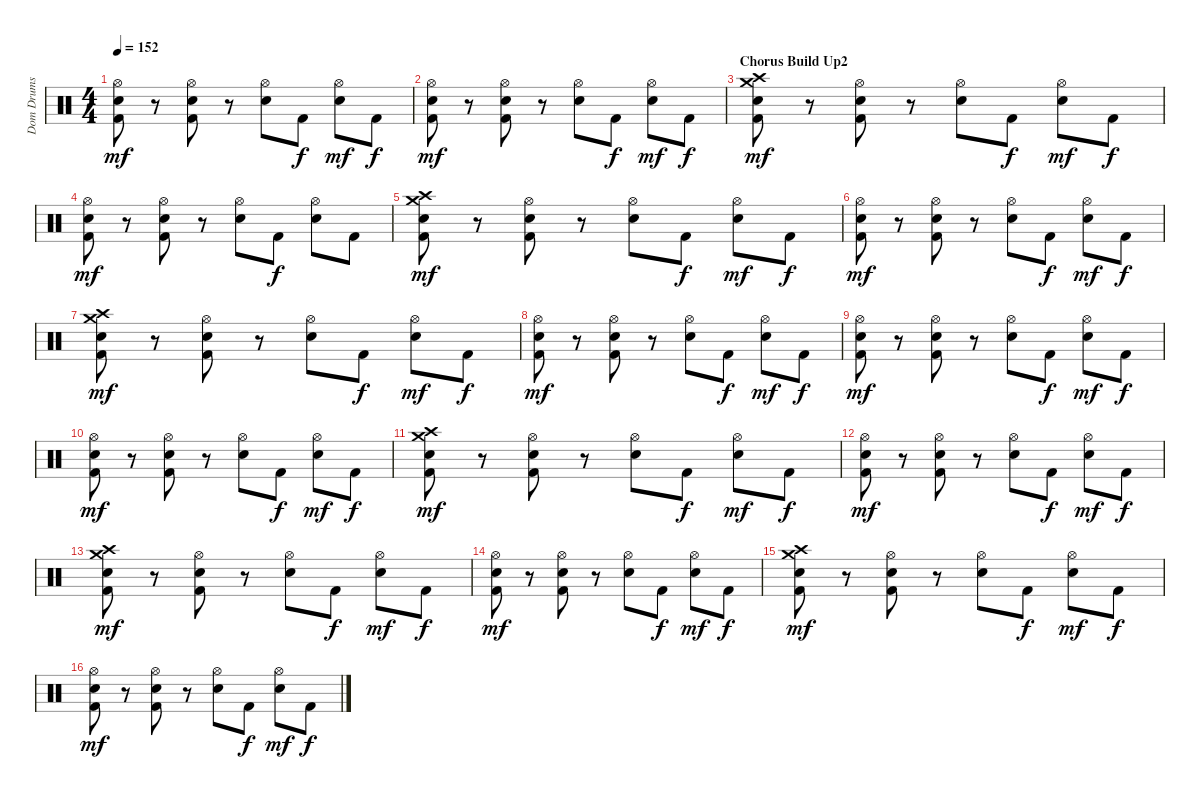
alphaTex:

\track ("Dom Drums" "Dom Drums") {instrument percussion}
\staff {score}
\articulation defaults
\ts (4 4)
\tempo 152
\clef neutral
\ks c
("Hi-Hat (open)" "Kick (hit) 2" "Snare (hit) 2").8{dy mf} r.8 ("Hi-Hat (open)" "Kick (hit) 2" "Snare (hit) 2").8 r.8 ("Hi-Hat (open)" "Snare (hit) 2").8 "Kick (hit) 2".8{dy f} ("Hi-Hat (open)" "Snare (hit) 2").8{dy mf} "Kick (hit) 2".8{dy f} |
("Hi-Hat (open)" "Kick (hit) 2" "Snare (hit) 2").8{dy mf} r.8 ("Hi-Hat (open)" "Kick (hit) 2" "Snare (hit) 2").8 r.8 ("Hi-Hat (open)" "Snare (hit) 2").8 "Kick (hit) 2".8{dy f} ("Hi-Hat (open)" "Snare (hit) 2").8{dy mf} "Kick (hit) 2".8{dy f} |
\section ("" "Chorus Build Up2")
("Crash medium (hit)" "Crash high (hit)" "Kick (hit) 2" "Snare (hit) 2").8{dy mf} r.8 ("Hi-Hat (open)" "Kick (hit) 2" "Snare (hit) 2").8 r.8 ("Hi-Hat (open)" "Snare (hit) 2").8 "Kick (hit) 2".8{dy f} ("Hi-Hat (open)" "Snare (hit) 2").8{dy mf} "Kick (hit) 2".8{dy f} |
("Hi-Hat (open)" "Kick (hit) 2" "Snare (hit) 2").8{dy mf} r.8 ("Hi-Hat (open)" "Kick (hit) 2" "Snare (hit) 2").8 r.8 ("Hi-Hat (open)" "Snare (hit) 2").8 "Kick (hit) 2".8{dy f} ("Hi-Hat (open)" "Snare (hit) 2").8 "Kick (hit) 2".8 |
("Crash medium (hit)" "Crash high (hit)" "Kick (hit) 2" "Snare (hit) 2").8{dy mf} r.8 ("Hi-Hat (open)" "Kick (hit) 2" "Snare (hit) 2").8 r.8 ("Hi-Hat (open)" "Snare (hit) 2").8 "Kick (hit) 2".8{dy f} ("Hi-Hat (open)" "Snare (hit) 2").8{dy mf} "Kick (hit) 2".8{dy f} |
("Hi-Hat (open)" "Kick (hit) 2" "Snare (hit) 2").8{dy mf} r.8 ("Hi-Hat (open)" "Kick (hit) 2" "Snare (hit) 2").8 r.8 ("Hi-Hat (open)" "Snare (hit) 2").8 "Kick (hit) 2".8{dy f} ("Hi-Hat (open)" "Snare (hit) 2").8{dy mf} "Kick (hit) 2".8{dy f} |
("Crash medium (hit)" "Crash high (hit)" "Kick (hit) 2" "Snare (hit) 2").8{dy mf} r.8 ("Hi-Hat (open)" "Kick (hit) 2" "Snare (hit) 2").8 r.8 ("Hi-Hat (open)" "Snare (hit) 2").8 "Kick (hit) 2".8{dy f} ("Hi-Hat (open)" "Snare (hit) 2").8{dy mf} "Kick (hit) 2".8{dy f} |
("Hi-Hat (open)" "Kick (hit) 2" "Snare (hit) 2").8{dy mf} r.8 ("Hi-Hat (open)" "Kick (hit) 2" "Snare (hit) 2").8 r.8 ("Hi-Hat (open)" "Snare (hit) 2").8 "Kick (hit) 2".8{dy f} ("Hi-Hat (open)" "Snare (hit) 2").8{dy mf} "Kick (hit) 2".8{dy f} |
("Hi-Hat (open)" "Kick (hit) 2" "Snare (hit) 2").8{dy mf} r.8 ("Hi-Hat (open)" "Kick (hit) 2" "Snare (hit) 2").8 r.8 ("Hi-Hat (open)" "Snare (hit) 2").8 "Kick (hit) 2".8{dy f} ("Hi-Hat (open)" "Snare (hit) 2").8{dy mf} "Kick (hit) 2".8{dy f} |
("Hi-Hat (open)" "Kick (hit) 2" "Snare (hit) 2").8{dy mf} r.8 ("Hi-Hat (open)" "Kick (hit) 2" "Snare (hit) 2").8 r.8 ("Hi-Hat (open)" "Snare (hit) 2").8 "Kick (hit) 2".8{dy f} ("Hi-Hat (open)" "Snare (hit) 2").8{dy mf} "Kick (hit) 2".8{dy f} |
("Crash medium (hit)" "Crash high (hit)" "Kick (hit) 2" "Snare (hit) 2").8{dy mf} r.8 ("Hi-Hat (open)" "Kick (hit) 2" "Snare (hit) 2").8 r.8 ("Hi-Hat (open)" "Snare (hit) 2").8 "Kick (hit) 2".8{dy f} ("Hi-Hat (open)" "Snare (hit) 2").8{dy mf} "Kick (hit) 2".8{dy f} |
("Hi-Hat (open)" "Kick (hit) 2" "Snare (hit) 2").8{dy mf} r.8 ("Hi-Hat (open)" "Kick (hit) 2" "Snare (hit) 2").8 r.8 ("Hi-Hat (open)" "Snare (hit) 2").8 "Kick (hit) 2".8{dy f} ("Hi-Hat (open)" "Snare (hit) 2").8{dy mf} "Kick (hit) 2".8{dy f} |
("Crash medium (hit)" "Crash high (hit)" "Kick (hit) 2" "Snare (hit) 2").8{dy mf} r.8 ("Hi-Hat (open)" "Kick (hit) 2" "Snare (hit) 2").8 r.8 ("Hi-Hat (open)" "Snare (hit) 2").8 "Kick (hit) 2".8{dy f} ("Hi-Hat (open)" "Snare (hit) 2").8{dy mf} "Kick (hit) 2".8{dy f} |
("Hi-Hat (open)" "Kick (hit) 2" "Snare (hit) 2").8{dy mf} r.8 ("Hi-Hat (open)" "Kick (hit) 2" "Snare (hit) 2").8 r.8 ("Hi-Hat (open)" "Snare (hit) 2").8 "Kick (hit) 2".8{dy f} ("Hi-Hat (open)" "Snare (hit) 2").8{dy mf} "Kick (hit) 2".8{dy f} |
("Crash medium (hit)" "Crash high (hit)" "Kick (hit) 2" "Snare (hit) 2").8{dy mf} r.8 ("Hi-Hat (open)" "Kick (hit) 2" "Snare (hit) 2").8 r.8 ("Hi-Hat (open)" "Snare (hit) 2").8 "Kick (hit) 2".8{dy f} ("Hi-Hat (open)" "Snare (hit) 2").8{dy mf} "Kick (hit) 2".8{dy f} |
("Hi-Hat (open)" "Kick (hit) 2" "Snare (hit) 2").8{dy mf} r.8 ("Hi-Hat (open)" "Kick (hit) 2" "Snare (hit) 2").8 r.8 ("Hi-Hat (open)" "Snare (hit) 2").8 "Kick (hit) 2".8{dy f} ("Hi-Hat (open)" "Snare (hit) 2").8{dy mf} "Kick (hit) 2".8{dy f}
